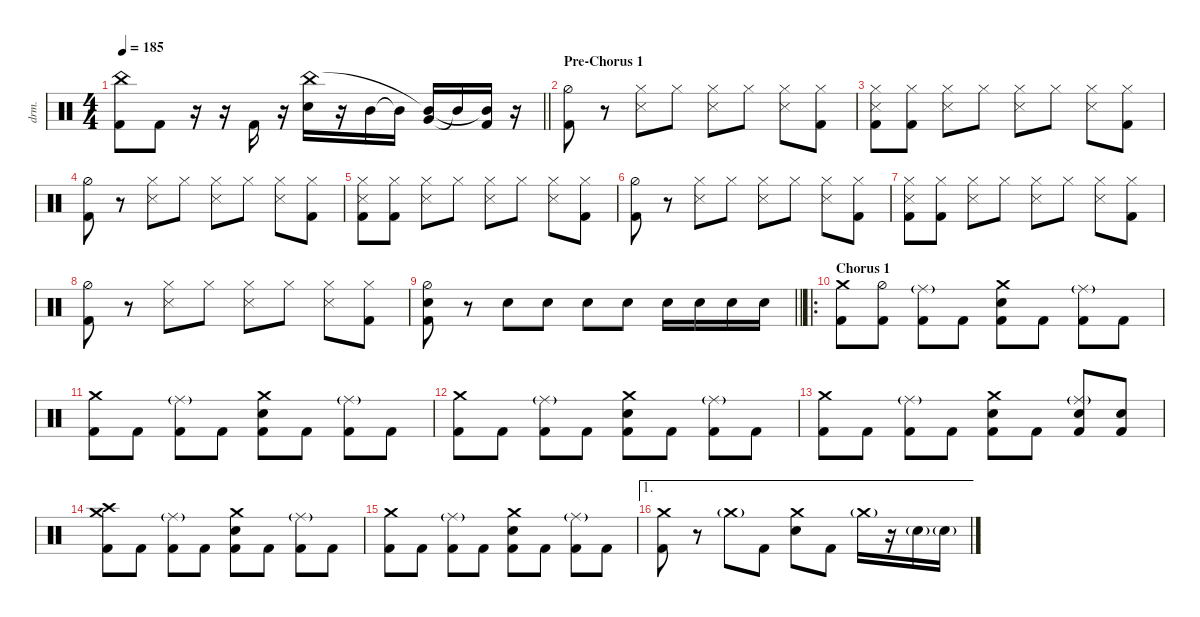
\defaultSystemsLayout 4
\hideDynamics
\bracketExtendMode nobrackets
\track ("Drums - Šimon" "drm.") {instrument percussion}
\staff {score}
\articulation defaults
\ts (4 4)
\tempo 185
\clef neutral
\barLineRight lightlight
\ks c
("China (hit)" "Kick (hit) 2").8{dy ff beam Down} "Kick (hit) 2".8{beam Down} r.16{beam Down} r.16{beam Down} "Kick (hit) 2".16{beam Up} r.16{beam Down} ("Snare (hit) 2" "China (hit)").16{beam Down} r.16{beam Down} "Mid Tom (hit)".16{beam Down} "Mid Tom (hit)"{t}.16{beam Down} ("Very Low Tom (hit)" "Mid Tom (hit)"{t}).16{beam Up} "Mid Tom (hit)"{t}.16{beam Up} ("Kick (hit) 2" "Mid Tom (hit)"{t}).16{beam Up} r.16{beam Down} |
\section ("" "Pre-Chorus 1")
("Hi-Hat (half)" "Kick (hit) 2").8{beam Down} r.8{beam Down} ("Hi-Hat (closed)" "Snare (side stick) 3").8{beam Down} "Hi-Hat (closed)".8{beam Down} ("Hi-Hat (closed)" "Snare (side stick) 3").8{beam Down} "Hi-Hat (closed)".8{beam Down} ("Hi-Hat (closed)" "Snare (side stick) 3").8{beam Down} ("Hi-Hat (closed)" "Kick (hit) 2").8{beam Down} |
("Hi-Hat (closed)" "Snare (side stick) 3" "Kick (hit) 2").8{beam Down} ("Hi-Hat (closed)" "Kick (hit) 2").8{beam Down} ("Hi-Hat (closed)" "Snare (side stick) 3").8{beam Down} "Hi-Hat (closed)".8{beam Down} ("Hi-Hat (closed)" "Snare (side stick) 3").8{beam Down} "Hi-Hat (closed)".8{beam Down} ("Hi-Hat (closed)" "Snare (side stick) 3").8{beam Down} ("Hi-Hat (closed)" "Kick (hit) 2").8{beam Down} |
("Hi-Hat (half)" "Kick (hit) 2").8{beam Down} r.8{beam Down} ("Hi-Hat (closed)" "Snare (side stick) 3").8{beam Down} "Hi-Hat (closed)".8{beam Down} ("Hi-Hat (closed)" "Snare (side stick) 3").8{beam Down} "Hi-Hat (closed)".8{beam Down} ("Hi-Hat (closed)" "Snare (side stick) 3").8{beam Down} ("Hi-Hat (closed)" "Kick (hit) 2").8{beam Down} |
("Hi-Hat (closed)" "Snare (side stick) 3" "Kick (hit) 2").8{beam Down} ("Hi-Hat (closed)" "Kick (hit) 2").8{beam Down} ("Hi-Hat (closed)" "Snare (side stick) 3").8{beam Down} "Hi-Hat (closed)".8{beam Down} ("Hi-Hat (closed)" "Snare (side stick) 3").8{beam Down} "Hi-Hat (closed)".8{beam Down} ("Hi-Hat (closed)" "Snare (side stick) 3").8{beam Down} ("Hi-Hat (closed)" "Kick (hit) 2").8{beam Down} |
("Hi-Hat (half)" "Kick (hit) 2").8{beam Down} r.8{beam Down} ("Hi-Hat (closed)" "Snare (side stick) 3").8{beam Down} "Hi-Hat (closed)".8{beam Down} ("Hi-Hat (closed)" "Snare (side stick) 3").8{beam Down} "Hi-Hat (closed)".8{beam Down} ("Hi-Hat (closed)" "Snare (side stick) 3").8{beam Down} ("Hi-Hat (closed)" "Kick (hit) 2").8{beam Down} |
("Hi-Hat (closed)" "Snare (side stick) 3" "Kick (hit) 2").8{beam Down} ("Hi-Hat (closed)" "Kick (hit) 2").8{beam Down} ("Hi-Hat (closed)" "Snare (side stick) 3").8{beam Down} "Hi-Hat (closed)".8{beam Down} ("Hi-Hat (closed)" "Snare (side stick) 3").8{beam Down} "Hi-Hat (closed)".8{beam Down} ("Hi-Hat (closed)" "Snare (side stick) 3").8{beam Down} ("Hi-Hat (closed)" "Kick (hit) 2").8{beam Down} |
("Hi-Hat (half)" "Kick (hit) 2").8{beam Down} r.8{beam Down} ("Hi-Hat (closed)" "Snare (side stick) 3").8{beam Down} "Hi-Hat (closed)".8{beam Down} ("Hi-Hat (closed)" "Snare (side stick) 3").8{beam Down} "Hi-Hat (closed)".8{beam Down} ("Hi-Hat (closed)" "Snare (side stick) 3").8{beam Down} ("Hi-Hat (closed)" "Kick (hit) 2").8{beam Down} |
\barLineRight lightlight
("Hi-Hat (half)" "Snare (hit) 2" "Kick (hit) 2").8{beam Down} r.8{beam Down} "Snare (hit) 2".8{beam Down} "Snare (hit) 2".8{beam Down} "Snare (hit) 2".8{beam Down} "Snare (hit) 2".8{beam Down} "Snare (hit) 2".16{beam Down} "Snare (hit) 2".16{beam Down} "Snare (hit) 2".16{beam Down} "Snare (hit) 2".16{beam Down} |
\ro
\section ("" "Chorus 1")
("Crash medium (hit)" "Kick (hit) 2").8{beam Down} ("Kick (hit) 2" "Hi-Hat (half)").8{beam Down} ("Kick (hit) 2" "Ride (middle)"{g}).8{beam Down} "Kick (hit) 2".8{beam Down} ("Snare (hit) 2" "Crash medium (hit)" "Kick (hit) 2").8{beam Down} "Kick (hit) 2".8{beam Down} ("Kick (hit) 2" "Ride (middle)"{g}).8{beam Down} "Kick (hit) 2".8{beam Down} |
("Crash medium (hit)" "Kick (hit) 2").8{beam Down} "Kick (hit) 2".8{beam Down} ("Kick (hit) 2" "Ride (middle)"{g}).8{beam Down} "Kick (hit) 2".8{beam Down} ("Snare (hit) 2" "Crash medium (hit)" "Kick (hit) 2").8{beam Down} "Kick (hit) 2".8{beam Down} ("Kick (hit) 2" "Ride (middle)"{g}).8{beam Down} "Kick (hit) 2".8{beam Down} |
("Crash medium (hit)" "Kick (hit) 2").8{beam Down} "Kick (hit) 2".8{beam Down} ("Kick (hit) 2" "Ride (middle)"{g}).8{beam Down} "Kick (hit) 2".8{beam Down} ("Snare (hit) 2" "Crash medium (hit)" "Kick (hit) 2").8{beam Down} "Kick (hit) 2".8{beam Down} ("Kick (hit) 2" "Ride (middle)"{g}).8{beam Down} "Kick (hit) 2".8{beam Down} |
("Crash medium (hit)" "Kick (hit) 2").8{beam Down} "Kick (hit) 2".8{beam Down} ("Kick (hit) 2" "Ride (middle)"{g}).8{beam Down} "Kick (hit) 2".8{beam Down} ("Snare (hit) 2" "Crash medium (hit)" "Kick (hit) 2").8{beam Down} "Kick (hit) 2".8{beam Down} ("Kick (hit) 2" "Ride (middle)"{g} "Snare (hit) 2").8{beam Up} ("Kick (hit) 2" "Snare (hit) 2").8{beam Up} |
("Crash medium (hit)" "Kick (hit) 2" "Crash high (hit)").8{beam Down} "Kick (hit) 2".8{beam Down} ("Kick (hit) 2" "Ride (middle)"{g}).8{beam Down} "Kick (hit) 2".8{beam Down} ("Snare (hit) 2" "Crash medium (hit)" "Kick (hit) 2").8{beam Down} "Kick (hit) 2".8{beam Down} ("Kick (hit) 2" "Ride (middle)"{g}).8{beam Down} "Kick (hit) 2".8{beam Down} |
("Crash medium (hit)" "Kick (hit) 2").8{beam Down} "Kick (hit) 2".8{beam Down} ("Kick (hit) 2" "Ride (middle)"{g}).8{beam Down} "Kick (hit) 2".8{beam Down} ("Snare (hit) 2" "Crash medium (hit)" "Kick (hit) 2").8{beam Down} "Kick (hit) 2".8{beam Down} ("Kick (hit) 2" "Ride (middle)"{g}).8{beam Down} "Kick (hit) 2".8{beam Down} |
\ae 1
("Kick (hit) 2" "Crash medium (hit)").8{beam Down} r.8{beam Down} "Crash medium (hit)"{g}.8{beam Down} "Kick (hit) 2".8{beam Down} ("Snare (hit) 2" "Crash medium (hit)").8{beam Down} "Kick (hit) 2".8{beam Down} "Crash medium (hit)"{g}.16{beam Down} r.16{beam Down} "Snare (hit) 2"{g}.16{beam Down} "Snare (hit) 2"{g}.16{beam Down}
